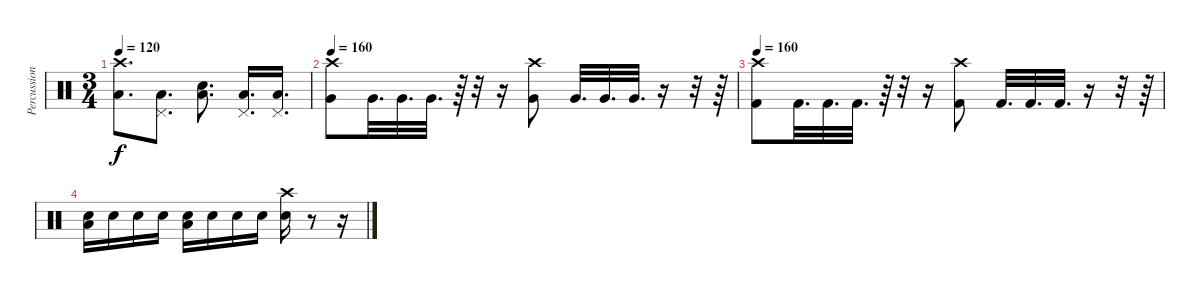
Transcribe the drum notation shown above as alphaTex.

\track ("Percussion" "Percussion") {instrument percussion}
\staff {score}
\articulation defaults
\ts (3 4)
\tempo 120
\clef neutral
\ks c
("Low Floor Tom (hit)" "Crash high (hit)").8{d dy f} ("Low Floor Tom (hit)" "Pedal Hi-Hat (hit)").8{d} ("Low Floor Tom (hit)" "Snare (hit) 2").8{d} ("Low Floor Tom (hit)" "Pedal Hi-Hat (hit)").16{d} ("Low Floor Tom (hit)" "Pedal Hi-Hat (hit)").16{d} |
\tempo 160
("Very Low Tom (hit)" "Crash high (hit)").8 "Very Low Tom (hit)".32{d} "Very Low Tom (hit)".32{d} "Very Low Tom (hit)".32{d} r.64 r.32 r.16 ("Very Low Tom (hit)" "Crash high (hit)").8 "Very Low Tom (hit)".32{d} "Very Low Tom (hit)".32{d} "Very Low Tom (hit)".32{d} r.16 r.32 r.64 |
\tempo 160
("Kick (hit) 2" "Crash high (hit)").8 "Kick (hit) 2".32{d} "Kick (hit) 2".32{d} "Kick (hit) 2".32{d} r.64 r.32 r.16 ("Kick (hit) 2" "Crash high (hit)").8 "Kick (hit) 2".32{d} "Kick (hit) 2".32{d} "Kick (hit) 2".32{d} r.16 r.32 r.64 |
("Low Floor Tom (hit)" "Snare (hit) 2").16 "Snare (hit) 2".16 "Snare (hit) 2".16 "Snare (hit) 2".16 ("Low Floor Tom (hit)" "Snare (hit) 2").16 "Snare (hit) 2".16 "Snare (hit) 2".16 "Snare (hit) 2".16 ("Snare (hit) 2" "Crash high (hit)").16 r.8 r.16
